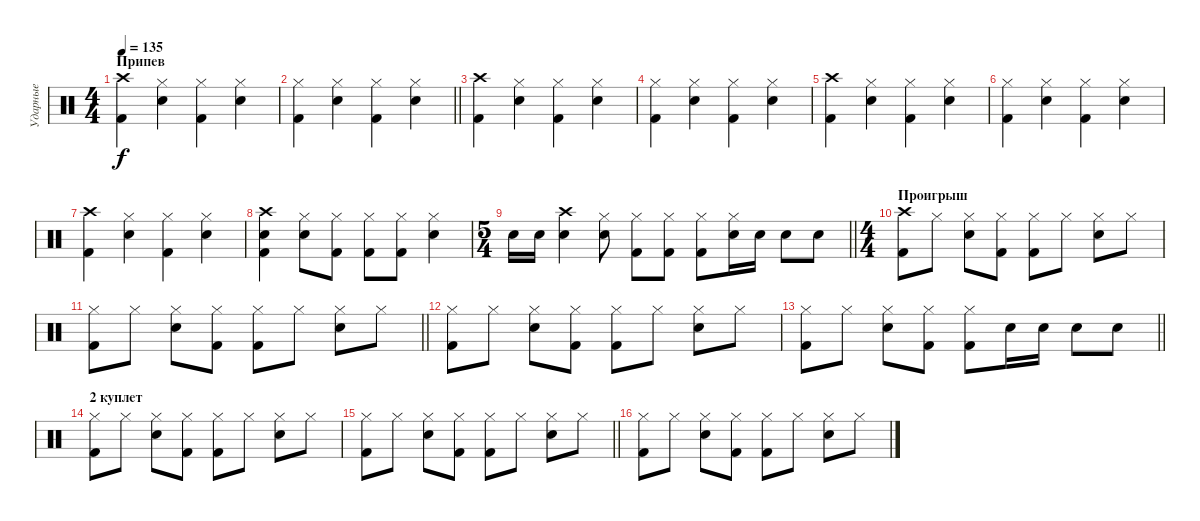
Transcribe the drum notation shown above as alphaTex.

\track ("Ударные" "Ударные") {instrument percussion}
\staff {score}
\articulation defaults
\ts (4 4)
\section ("" "Припев")
\tempo 135
\clef neutral
\ks c
("Crash high (hit)" "Kick (hit) 2").4{dy f} ("Hi-Hat (closed)" "Snare (hit) 2").4 ("Hi-Hat (closed)" "Kick (hit) 2").4 ("Hi-Hat (closed)" "Snare (hit) 2").4 |
\barLineRight lightlight
("Hi-Hat (closed)" "Kick (hit) 2").4 ("Hi-Hat (closed)" "Snare (hit) 2").4 ("Hi-Hat (closed)" "Kick (hit) 2").4 ("Hi-Hat (closed)" "Snare (hit) 2").4 |
("Crash high (hit)" "Kick (hit) 2").4 ("Hi-Hat (closed)" "Snare (hit) 2").4 ("Hi-Hat (closed)" "Kick (hit) 2").4 ("Hi-Hat (closed)" "Snare (hit) 2").4 |
("Hi-Hat (closed)" "Kick (hit) 2").4 ("Hi-Hat (closed)" "Snare (hit) 2").4 ("Hi-Hat (closed)" "Kick (hit) 2").4 ("Hi-Hat (closed)" "Snare (hit) 2").4 |
("Crash high (hit)" "Kick (hit) 2").4 ("Hi-Hat (closed)" "Snare (hit) 2").4 ("Hi-Hat (closed)" "Kick (hit) 2").4 ("Hi-Hat (closed)" "Snare (hit) 2").4 |
("Hi-Hat (closed)" "Kick (hit) 2").4 ("Hi-Hat (closed)" "Snare (hit) 2").4 ("Hi-Hat (closed)" "Kick (hit) 2").4 ("Hi-Hat (closed)" "Snare (hit) 2").4 |
("Crash high (hit)" "Kick (hit) 2").4 ("Hi-Hat (closed)" "Snare (hit) 2").4 ("Hi-Hat (closed)" "Kick (hit) 2").4 ("Hi-Hat (closed)" "Snare (hit) 2").4 |
("Crash high (hit)" "Snare (hit) 2" "Kick (hit) 2").4 ("Hi-Hat (closed)" "Snare (hit) 2").8 ("Hi-Hat (closed)" "Kick (hit) 2").8 ("Hi-Hat (closed)" "Kick (hit) 2").8 ("Hi-Hat (closed)" "Kick (hit) 2").8 ("Hi-Hat (closed)" "Snare (hit) 2").4 |
\ts (5 4)
\barLineRight lightlight "Snare (hit) 2".16 "Snare (hit) 2".16
("Crash high (hit)" "Snare (hit) 2").4 ("Hi-Hat (closed)" "Snare (hit) 2").8 ("Hi-Hat (closed)" "Kick (hit) 2").8 ("Hi-Hat (closed)" "Kick (hit) 2").8 ("Hi-Hat (closed)" "Kick (hit) 2").8 ("Hi-Hat (closed)" "Snare (hit) 2").16 "Snare (hit) 2".16 "Snare (hit) 2".8 "Snare (hit) 2".8 |
\ts (4 4)
\section ("" "Проигрыш")
("Crash high (hit)" "Kick (hit) 2").8 "Hi-Hat (closed)".8 ("Hi-Hat (closed)" "Snare (hit) 2").8 ("Hi-Hat (closed)" "Kick (hit) 2").8 ("Hi-Hat (closed)" "Kick (hit) 2").8 "Hi-Hat (closed)".8 ("Hi-Hat (closed)" "Snare (hit) 2").8 "Hi-Hat (closed)".8 |
\barLineRight lightlight
("Hi-Hat (closed)" "Kick (hit) 2").8 "Hi-Hat (closed)".8 ("Hi-Hat (closed)" "Snare (hit) 2").8 ("Hi-Hat (closed)" "Kick (hit) 2").8 ("Hi-Hat (closed)" "Kick (hit) 2").8 "Hi-Hat (closed)".8 ("Hi-Hat (closed)" "Snare (hit) 2").8 "Hi-Hat (closed)".8 |
("Hi-Hat (closed)" "Kick (hit) 2").8 "Hi-Hat (closed)".8 ("Hi-Hat (closed)" "Snare (hit) 2").8 ("Hi-Hat (closed)" "Kick (hit) 2").8 ("Hi-Hat (closed)" "Kick (hit) 2").8 "Hi-Hat (closed)".8 ("Hi-Hat (closed)" "Snare (hit) 2").8 "Hi-Hat (closed)".8 |
\barLineRight lightlight
("Hi-Hat (closed)" "Kick (hit) 2").8 "Hi-Hat (closed)".8 ("Hi-Hat (closed)" "Snare (hit) 2").8 ("Hi-Hat (closed)" "Kick (hit) 2").8 ("Hi-Hat (closed)" "Kick (hit) 2").8 "Snare (hit) 2".16 "Snare (hit) 2".16 "Snare (hit) 2".8 "Snare (hit) 2".8 |
\section ("" "2 куплет")
("Hi-Hat (closed)" "Kick (hit) 2").8 "Hi-Hat (closed)".8 ("Hi-Hat (closed)" "Snare (hit) 2").8 ("Hi-Hat (closed)" "Kick (hit) 2").8 ("Hi-Hat (closed)" "Kick (hit) 2").8 "Hi-Hat (closed)".8 ("Hi-Hat (closed)" "Snare (hit) 2").8 "Hi-Hat (closed)".8 |
\barLineRight lightlight
("Hi-Hat (closed)" "Kick (hit) 2").8 "Hi-Hat (closed)".8 ("Hi-Hat (closed)" "Snare (hit) 2").8 ("Hi-Hat (closed)" "Kick (hit) 2").8 ("Hi-Hat (closed)" "Kick (hit) 2").8 "Hi-Hat (closed)".8 ("Hi-Hat (closed)" "Snare (hit) 2").8 "Hi-Hat (closed)".8 |
("Hi-Hat (closed)" "Kick (hit) 2").8 "Hi-Hat (closed)".8 ("Hi-Hat (closed)" "Snare (hit) 2").8 ("Hi-Hat (closed)" "Kick (hit) 2").8 ("Hi-Hat (closed)" "Kick (hit) 2").8 "Hi-Hat (closed)".8 ("Hi-Hat (closed)" "Snare (hit) 2").8 "Hi-Hat (closed)".8
